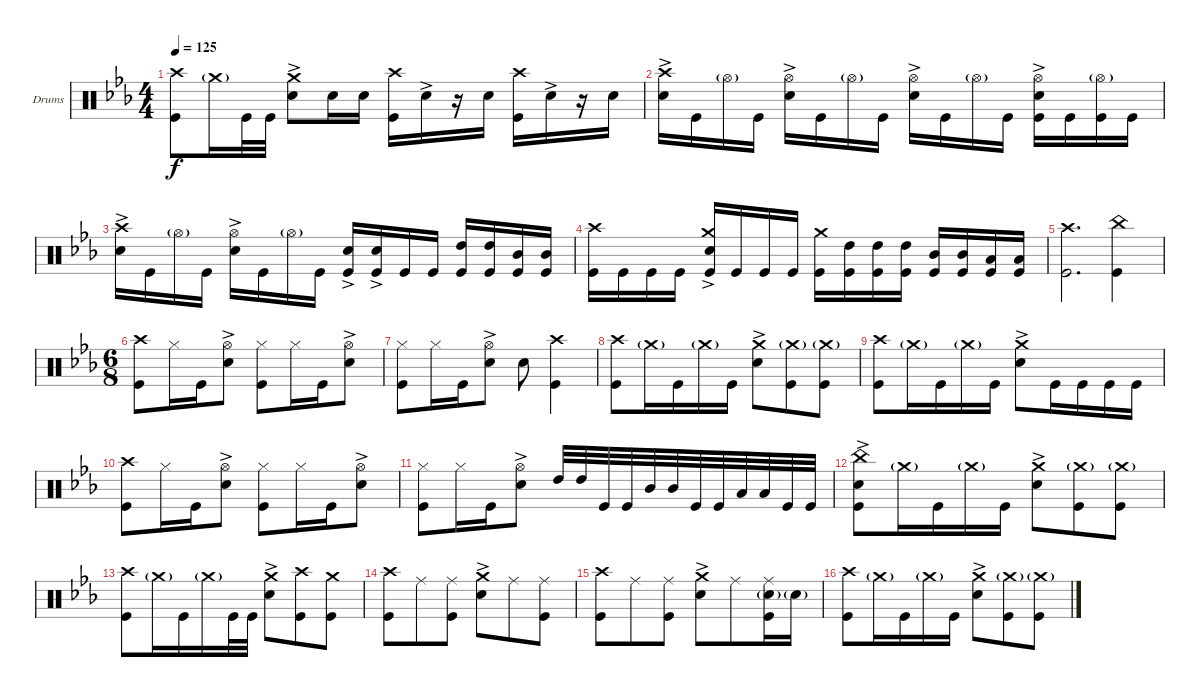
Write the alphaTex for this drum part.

\bracketExtendMode groupsimilarinstruments
\firstSystemTrackNameOrientation horizontal
\otherSystemsTrackNameOrientation horizontal
\track ("Drumkit" "Drums") {instrument percussion}
\staff {score}
\articulation defaults
\ts (4 4)
\tempo 125
\clef neutral
\ks cminor
("Kick (hit)" "Crash high (hit)").8{dy f} "Crash medium (hit)"{g}.16 "Kick (hit)".32 "Kick (hit)".32 ("Snare (hit) 2"{ac} "Crash medium (hit)").8 "Snare (hit) 2".16 "Snare (hit) 2".16 ("Kick (hit)" "Crash high (hit)").16 "Snare (hit) 2"{ac}.16 r.16 "Snare (hit) 2".16 ("Kick (hit)" "Crash high (hit)").16 "Snare (hit) 2"{ac}.16 r.16 "Snare (hit) 2".16 |
("Snare (hit) 2"{ac} "Crash high (hit)").16 "Kick (hit)".16 "Hi-Hat (open)"{g}.16 "Kick (hit)".16 ("Snare (hit) 2"{ac} "Hi-Hat (open)").16 "Kick (hit)".16 "Hi-Hat (open)"{g}.16 "Kick (hit)".16 ("Snare (hit) 2"{ac} "Hi-Hat (open)").16 "Kick (hit)".16 "Hi-Hat (open)"{g}.16 "Kick (hit)".16 ("Snare (hit) 2"{ac} "Hi-Hat (open)" "Kick (hit)").16 "Kick (hit)".16 ("Hi-Hat (open)"{g} "Kick (hit)").16 "Kick (hit)".16 |
("Snare (hit) 2"{ac} "Crash high (hit)").16 "Kick (hit)".16 "Hi-Hat (open)"{g}.16 "Kick (hit)".16 ("Snare (hit) 2"{ac} "Hi-Hat (open)").16 "Kick (hit)".16 "Hi-Hat (open)"{g}.16 "Kick (hit)".16 ("Snare (hit) 2"{ac} "Kick (hit)").16 ("Snare (hit) 2"{ac} "Kick (hit)").16 "Kick (hit)".16 "Kick (hit)".16 ("High Tom (hit)" "Kick (hit)").16 ("Kick (hit)" "High Tom (hit)").16 ("Kick (hit)" "Mid Tom (hit)").16 ("Kick (hit)" "Mid Tom (hit)").16 |
("Kick (hit)" "Crash high (hit)").16 "Kick (hit)".16 "Kick (hit)".16 "Kick (hit)".16 ("Kick (hit)" "Snare (hit) 2"{ac} "Crash medium (hit)").16 "Kick (hit)".16 "Kick (hit)".16 "Kick (hit)".16 ("Kick (hit)" "Crash medium (hit)").16 ("Kick (hit)" "High Tom (hit)").16 ("Kick (hit)" "High Tom (hit)").16 ("Kick (hit)" "High Tom (hit)").16 ("Kick (hit)" "Mid Tom (hit)").16 ("Kick (hit)" "Mid Tom (hit)").16 ("Kick (hit)" "Low Tom (hit)").16 ("Kick (hit)" "Low Tom (hit)").16 |
("Kick (hit)" "Crash high (hit)").2{d} ("Kick (hit)" "China (hit)").4 |
\ts (6 8)
("Kick (hit)" "Crash high (hit)").8 "Hi-Hat (closed)".16 "Kick (hit)".16 ("Hi-Hat (open)" "Snare (hit) 2"{ac}).8 ("Kick (hit)" "Hi-Hat (closed)").8 "Hi-Hat (closed)".16 "Kick (hit)".16 ("Hi-Hat (open)" "Snare (hit) 2"{ac}).8 |
("Kick (hit)" "Hi-Hat (closed)").8 "Hi-Hat (closed)".16 "Kick (hit)".16 ("Hi-Hat (open)" "Snare (hit) 2"{ac}).8 "Snare (hit) 2".8 ("Kick (hit)" "Crash high (hit)").4 |
("Kick (hit)" "Crash high (hit)").8 "Crash medium (hit)"{g}.16 "Kick (hit)".16 "Crash medium (hit)"{g}.16 "Kick (hit)".16 ("Snare (hit) 2"{ac} "Crash medium (hit)").8 ("Kick (hit)" "Crash medium (hit)"{g}).8 ("Kick (hit)" "Crash medium (hit)"{g}).8 |
("Kick (hit)" "Crash high (hit)").8 "Crash medium (hit)"{g}.16 "Kick (hit)".16 "Crash medium (hit)"{g}.16 "Kick (hit)".16 ("Snare (hit) 2"{ac} "Crash medium (hit)").8 "Kick (hit)".16 "Kick (hit)".16 "Kick (hit)".16 "Kick (hit)".16 |
("Kick (hit)" "Crash high (hit)").8 "Hi-Hat (closed)".16 "Kick (hit)".16 ("Hi-Hat (open)" "Snare (hit) 2"{ac}).8 ("Kick (hit)" "Hi-Hat (closed)").8 "Hi-Hat (closed)".16 "Kick (hit)".16 ("Hi-Hat (open)" "Snare (hit) 2"{ac}).8 |
("Kick (hit)" "Hi-Hat (closed)").8 "Hi-Hat (closed)".16 "Kick (hit)".16 ("Hi-Hat (open)" "Snare (hit) 2"{ac}).8 "High Tom (hit)".32 "High Tom (hit)".32 "Kick (hit)".32 "Kick (hit)".32 "Mid Tom (hit)".32 "Mid Tom (hit)".32 "Kick (hit)".32 "Kick (hit)".32 "Low Tom (hit)".32 "Low Tom (hit)".32 "Kick (hit)".32 "Kick (hit)".32 |
("Kick (hit)" "Snare (hit) 2"{ac} "China (hit)").8 "Crash medium (hit)"{g}.16 "Kick (hit)".16 "Crash medium (hit)"{g}.16 "Kick (hit)".16 ("Snare (hit) 2"{ac} "Crash medium (hit)").8 ("Kick (hit)" "Crash medium (hit)"{g}).8 ("Kick (hit)" "Crash medium (hit)"{g}).8 |
("Kick (hit)" "Crash high (hit)").8 "Crash medium (hit)"{g}.16 "Kick (hit)".16 "Crash medium (hit)"{g}.16 "Kick (hit)".32 "Kick (hit)".32 ("Snare (hit) 2"{ac} "Crash medium (hit)").8 ("Kick (hit)" "Crash high (hit)").8 ("Kick (hit)" "Crash medium (hit)").8 |
("Crash high (hit)" "Kick (hit)").8 "Ride (middle)".8 ("Kick (hit)" "Ride (middle)").8 ("Snare (hit) 2"{ac} "Crash medium (hit)").8 "Ride (middle)".8 ("Kick (hit)" "Ride (middle)").8 |
("Crash high (hit)" "Kick (hit)").8 "Ride (middle)".8 ("Kick (hit)" "Ride (middle)").8 ("Snare (hit) 2"{ac} "Crash medium (hit)").8 "Ride (middle)".8 ("Kick (hit)" "Ride (middle)" "Snare (hit) 2"{g}).16 "Snare (hit) 2"{g}.16 |
("Kick (hit)" "Crash high (hit)").8 "Crash medium (hit)"{g}.16 "Kick (hit)".16 "Crash medium (hit)"{g}.16 "Kick (hit)".16 ("Snare (hit) 2"{ac} "Crash medium (hit)").8 ("Kick (hit)" "Crash medium (hit)"{g}).8 ("Kick (hit)" "Crash medium (hit)"{g}).8
